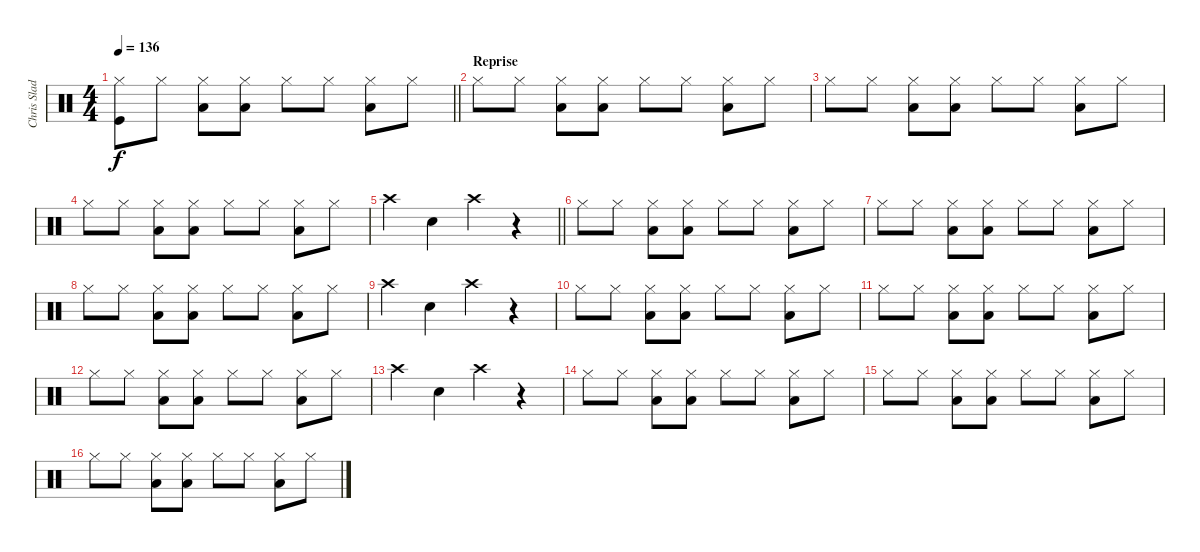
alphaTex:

\track ("Chris Slade" "Chris Slad") {instrument percussion}
\staff {score}
\articulation defaults
\ts (4 4)
\tempo 136
\clef neutral
\barLineRight lightlight
\ks c
("Hi-Hat (closed)" "Kick (hit)").8{dy f} "Hi-Hat (closed)".8 ("Hi-Hat (closed)" "Low Tom (hit)").8 ("Hi-Hat (closed)" "Low Tom (hit)").8 "Hi-Hat (closed)".8 "Hi-Hat (closed)".8 ("Hi-Hat (closed)" "Low Tom (hit)").8 "Hi-Hat (closed)".8 |
\section ("" "Reprise")
"Hi-Hat (closed)".8 "Hi-Hat (closed)".8 ("Hi-Hat (closed)" "Low Tom (hit)").8 ("Hi-Hat (closed)" "Low Tom (hit)").8 "Hi-Hat (closed)".8 "Hi-Hat (closed)".8 ("Hi-Hat (closed)" "Low Tom (hit)").8 "Hi-Hat (closed)".8 |
"Hi-Hat (closed)".8 "Hi-Hat (closed)".8 ("Hi-Hat (closed)" "Low Tom (hit)").8 ("Hi-Hat (closed)" "Low Tom (hit)").8 "Hi-Hat (closed)".8 "Hi-Hat (closed)".8 ("Hi-Hat (closed)" "Low Tom (hit)").8 "Hi-Hat (closed)".8 |
"Hi-Hat (closed)".8 "Hi-Hat (closed)".8 ("Hi-Hat (closed)" "Low Tom (hit)").8 ("Hi-Hat (closed)" "Low Tom (hit)").8 "Hi-Hat (closed)".8 "Hi-Hat (closed)".8 ("Hi-Hat (closed)" "Low Tom (hit)").8 "Hi-Hat (closed)".8 |
\barLineRight lightlight "Crash high (hit)".4 "Snare (hit) 2".4 "Crash high (hit)".4
r.4 |
"Hi-Hat (closed)".8 "Hi-Hat (closed)".8 ("Hi-Hat (closed)" "Low Tom (hit)").8 ("Hi-Hat (closed)" "Low Tom (hit)").8 "Hi-Hat (closed)".8 "Hi-Hat (closed)".8 ("Hi-Hat (closed)" "Low Tom (hit)").8 "Hi-Hat (closed)".8 |
"Hi-Hat (closed)".8 "Hi-Hat (closed)".8 ("Hi-Hat (closed)" "Low Tom (hit)").8 ("Hi-Hat (closed)" "Low Tom (hit)").8 "Hi-Hat (closed)".8 "Hi-Hat (closed)".8 ("Hi-Hat (closed)" "Low Tom (hit)").8 "Hi-Hat (closed)".8 |
"Hi-Hat (closed)".8 "Hi-Hat (closed)".8 ("Hi-Hat (closed)" "Low Tom (hit)").8 ("Hi-Hat (closed)" "Low Tom (hit)").8 "Hi-Hat (closed)".8 "Hi-Hat (closed)".8 ("Hi-Hat (closed)" "Low Tom (hit)").8 "Hi-Hat (closed)".8 |
"Crash high (hit)".4 "Snare (hit) 2".4 "Crash high (hit)".4 r.4 |
"Hi-Hat (closed)".8 "Hi-Hat (closed)".8 ("Hi-Hat (closed)" "Low Tom (hit)").8 ("Hi-Hat (closed)" "Low Tom (hit)").8 "Hi-Hat (closed)".8 "Hi-Hat (closed)".8 ("Hi-Hat (closed)" "Low Tom (hit)").8 "Hi-Hat (closed)".8 |
"Hi-Hat (closed)".8 "Hi-Hat (closed)".8 ("Hi-Hat (closed)" "Low Tom (hit)").8 ("Hi-Hat (closed)" "Low Tom (hit)").8 "Hi-Hat (closed)".8 "Hi-Hat (closed)".8 ("Hi-Hat (closed)" "Low Tom (hit)").8 "Hi-Hat (closed)".8 |
"Hi-Hat (closed)".8 "Hi-Hat (closed)".8 ("Hi-Hat (closed)" "Low Tom (hit)").8 ("Hi-Hat (closed)" "Low Tom (hit)").8 "Hi-Hat (closed)".8 "Hi-Hat (closed)".8 ("Hi-Hat (closed)" "Low Tom (hit)").8 "Hi-Hat (closed)".8 |
"Crash high (hit)".4 "Snare (hit) 2".4 "Crash high (hit)".4 r.4 |
"Hi-Hat (closed)".8 "Hi-Hat (closed)".8 ("Hi-Hat (closed)" "Low Tom (hit)").8 ("Hi-Hat (closed)" "Low Tom (hit)").8 "Hi-Hat (closed)".8 "Hi-Hat (closed)".8 ("Hi-Hat (closed)" "Low Tom (hit)").8 "Hi-Hat (closed)".8 |
"Hi-Hat (closed)".8 "Hi-Hat (closed)".8 ("Hi-Hat (closed)" "Low Tom (hit)").8 ("Hi-Hat (closed)" "Low Tom (hit)").8 "Hi-Hat (closed)".8 "Hi-Hat (closed)".8 ("Hi-Hat (closed)" "Low Tom (hit)").8 "Hi-Hat (closed)".8 |
"Hi-Hat (closed)".8 "Hi-Hat (closed)".8 ("Hi-Hat (closed)" "Low Tom (hit)").8 ("Hi-Hat (closed)" "Low Tom (hit)").8 "Hi-Hat (closed)".8 "Hi-Hat (closed)".8 ("Hi-Hat (closed)" "Low Tom (hit)").8 "Hi-Hat (closed)".8
